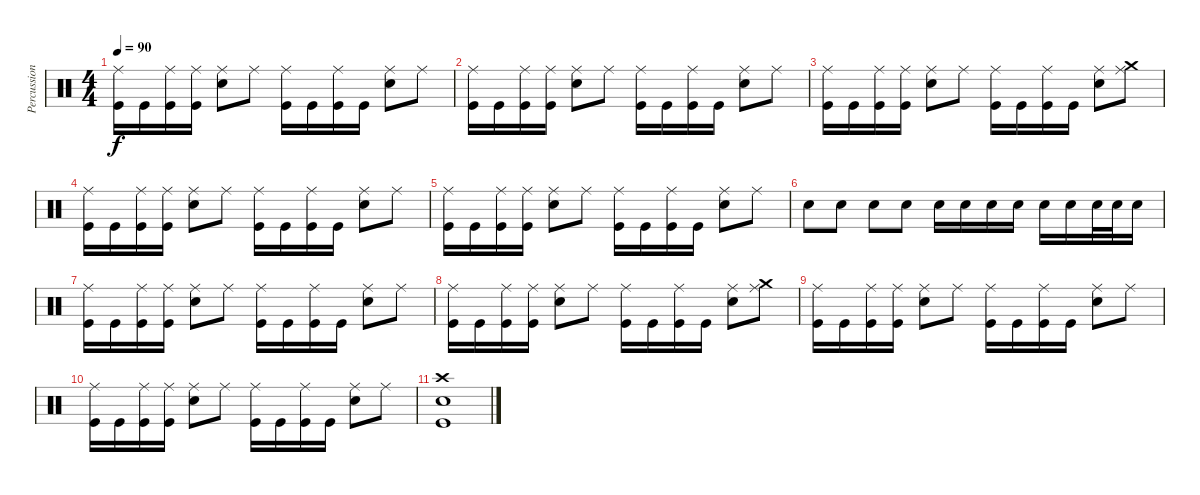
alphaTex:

\track ("Percussions" "Percussion") {instrument percussion}
\staff {score}
\articulation defaults
\ts (4 4)
\tempo 90
\clef neutral
\ks c
("Ride (middle)" "Kick (hit)").16{dy f} "Kick (hit)".16 ("Ride (middle)" "Kick (hit)").16 ("Ride (middle)" "Kick (hit)").16 ("Ride (middle)" "Electric Snare (hit)").8 "Ride (middle)".8 ("Ride (middle)" "Kick (hit)").16 "Kick (hit)".16 ("Ride (middle)" "Kick (hit)").16 "Kick (hit)".16 ("Ride (middle)" "Electric Snare (hit)").8 "Ride (middle)".8 |
("Ride (middle)" "Kick (hit)").16 "Kick (hit)".16 ("Ride (middle)" "Kick (hit)").16 ("Ride (middle)" "Kick (hit)").16 ("Ride (middle)" "Electric Snare (hit)").8 "Ride (middle)".8 ("Ride (middle)" "Kick (hit)").16 "Kick (hit)".16 ("Ride (middle)" "Kick (hit)").16 "Kick (hit)".16 ("Ride (middle)" "Electric Snare (hit)").8 "Ride (middle)".8 |
("Ride (middle)" "Kick (hit)").16 "Kick (hit)".16 ("Ride (middle)" "Kick (hit)").16 ("Ride (middle)" "Kick (hit)").16 ("Ride (middle)" "Electric Snare (hit)").8 "Ride (middle)".8 ("Ride (middle)" "Kick (hit)").16 "Kick (hit)".16 ("Ride (middle)" "Kick (hit)").16 "Kick (hit)".16 ("Ride (middle)" "Electric Snare (hit)").8 ("Ride (middle)" "Crash medium (hit)").8 |
("Ride (middle)" "Kick (hit)").16 "Kick (hit)".16 ("Ride (middle)" "Kick (hit)").16 ("Ride (middle)" "Kick (hit)").16 ("Ride (middle)" "Electric Snare (hit)").8 "Ride (middle)".8 ("Ride (middle)" "Kick (hit)").16 "Kick (hit)".16 ("Ride (middle)" "Kick (hit)").16 "Kick (hit)".16 ("Ride (middle)" "Electric Snare (hit)").8 "Ride (middle)".8 |
("Ride (middle)" "Kick (hit)").16 "Kick (hit)".16 ("Ride (middle)" "Kick (hit)").16 ("Ride (middle)" "Kick (hit)").16 ("Ride (middle)" "Electric Snare (hit)").8 "Ride (middle)".8 ("Ride (middle)" "Kick (hit)").16 "Kick (hit)".16 ("Ride (middle)" "Kick (hit)").16 "Kick (hit)".16 ("Ride (middle)" "Electric Snare (hit)").8 "Ride (middle)".8 |
"Electric Snare (hit)".8 "Electric Snare (hit)".8 "Electric Snare (hit)".8 "Electric Snare (hit)".8 "Electric Snare (hit)".16 "Electric Snare (hit)".16 "Electric Snare (hit)".16 "Electric Snare (hit)".16 "Electric Snare (hit)".16 "Electric Snare (hit)".16 "Electric Snare (hit)".32 "Electric Snare (hit)".32 "Electric Snare (hit)".16 |
("Ride (middle)" "Kick (hit)").16 "Kick (hit)".16 ("Ride (middle)" "Kick (hit)").16 ("Ride (middle)" "Kick (hit)").16 ("Ride (middle)" "Electric Snare (hit)").8 "Ride (middle)".8 ("Ride (middle)" "Kick (hit)").16 "Kick (hit)".16 ("Ride (middle)" "Kick (hit)").16 "Kick (hit)".16 ("Ride (middle)" "Electric Snare (hit)").8 "Ride (middle)".8 |
("Ride (middle)" "Kick (hit)").16 "Kick (hit)".16 ("Ride (middle)" "Kick (hit)").16 ("Ride (middle)" "Kick (hit)").16 ("Ride (middle)" "Electric Snare (hit)").8 "Ride (middle)".8 ("Ride (middle)" "Kick (hit)").16 "Kick (hit)".16 ("Ride (middle)" "Kick (hit)").16 "Kick (hit)".16 ("Ride (middle)" "Electric Snare (hit)").8 ("Ride (middle)" "Crash medium (hit)").8 |
("Ride (middle)" "Kick (hit)").16 "Kick (hit)".16 ("Ride (middle)" "Kick (hit)").16 ("Ride (middle)" "Kick (hit)").16 ("Ride (middle)" "Electric Snare (hit)").8 "Ride (middle)".8 ("Ride (middle)" "Kick (hit)").16 "Kick (hit)".16 ("Ride (middle)" "Kick (hit)").16 "Kick (hit)".16 ("Ride (middle)" "Electric Snare (hit)").8 "Ride (middle)".8 |
("Ride (middle)" "Kick (hit)").16 "Kick (hit)".16 ("Ride (middle)" "Kick (hit)").16 ("Ride (middle)" "Kick (hit)").16 ("Ride (middle)" "Electric Snare (hit)").8 "Ride (middle)".8 ("Ride (middle)" "Kick (hit)").16 "Kick (hit)".16 ("Ride (middle)" "Kick (hit)").16 "Kick (hit)".16 ("Ride (middle)" "Electric Snare (hit)").8 "Ride (middle)".8 |
("Crash high (hit)" "Electric Snare (hit)" "Kick (hit)").1
